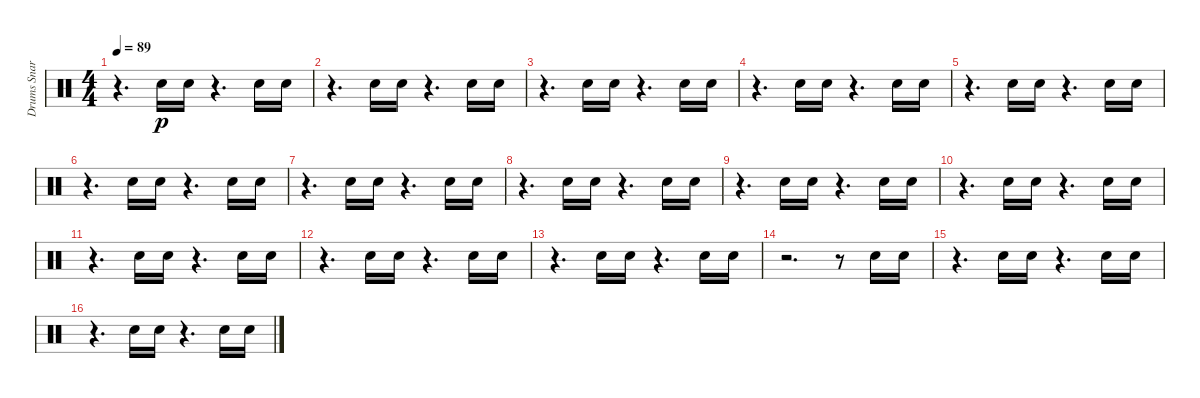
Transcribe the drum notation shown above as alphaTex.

\track ("Drums Snare" "Drums Snar") {instrument percussion}
\staff {score}
\articulation defaults
\ts (4 4)
\tempo 89
\clef neutral
\ks c
r.4{d dy p} "Snare (hit) 2".16 "Snare (hit) 2".16 r.4{d} "Snare (hit) 2".16 "Snare (hit) 2".16 |
r.4{d} "Snare (hit) 2".16 "Snare (hit) 2".16 r.4{d} "Snare (hit) 2".16 "Snare (hit) 2".16 |
r.4{d} "Snare (hit) 2".16 "Snare (hit) 2".16 r.4{d} "Snare (hit) 2".16 "Snare (hit) 2".16 |
r.4{d} "Snare (hit) 2".16 "Snare (hit) 2".16 r.4{d} "Snare (hit) 2".16 "Snare (hit) 2".16 |
r.4{d} "Snare (hit) 2".16 "Snare (hit) 2".16 r.4{d} "Snare (hit) 2".16 "Snare (hit) 2".16 |
r.4{d} "Snare (hit) 2".16 "Snare (hit) 2".16 r.4{d} "Snare (hit) 2".16 "Snare (hit) 2".16 |
r.4{d} "Snare (hit) 2".16 "Snare (hit) 2".16 r.4{d} "Snare (hit) 2".16 "Snare (hit) 2".16 |
r.4{d} "Snare (hit) 2".16 "Snare (hit) 2".16 r.4{d} "Snare (hit) 2".16 "Snare (hit) 2".16 |
r.4{d} "Snare (hit) 2".16 "Snare (hit) 2".16 r.4{d} "Snare (hit) 2".16 "Snare (hit) 2".16 |
r.4{d} "Snare (hit) 2".16 "Snare (hit) 2".16 r.4{d} "Snare (hit) 2".16 "Snare (hit) 2".16 |
r.4{d} "Snare (hit) 2".16 "Snare (hit) 2".16 r.4{d} "Snare (hit) 2".16 "Snare (hit) 2".16 |
r.4{d} "Snare (hit) 2".16 "Snare (hit) 2".16 r.4{d} "Snare (hit) 2".16 "Snare (hit) 2".16 |
r.4{d} "Snare (hit) 2".16 "Snare (hit) 2".16 r.4{d} "Snare (hit) 2".16 "Snare (hit) 2".16 |
r.2{d} r.8 "Snare (hit) 2".16 "Snare (hit) 2".16 |
r.4{d} "Snare (hit) 2".16 "Snare (hit) 2".16 r.4{d} "Snare (hit) 2".16 "Snare (hit) 2".16 |
r.4{d} "Snare (hit) 2".16 "Snare (hit) 2".16 r.4{d} "Snare (hit) 2".16 "Snare (hit) 2".16
